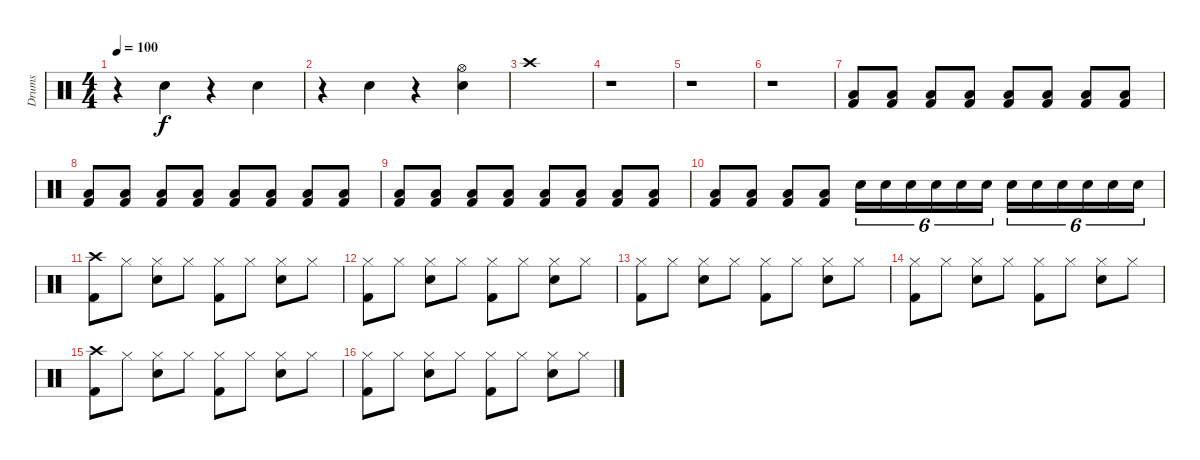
\track ("Drums" "Drums") {instrument percussion}
\staff {score}
\articulation defaults
\ts (4 4)
\tempo 100
\clef neutral
\ks c
r.4{dy f} "Electric Snare (hit)".4 r.4 "Electric Snare (hit)".4 |
r.4 "Electric Snare (hit)".4 r.4 ("Hi-Hat (open)" "Electric Snare (hit)").4 |
"Crash high (hit)".1 |
r.1 |
r.1 |
r.1 |
("Low Tom (hit)" "Kick (hit) 2").8 ("Low Tom (hit)" "Kick (hit) 2").8 ("Low Tom (hit)" "Kick (hit) 2").8 ("Low Tom (hit)" "Kick (hit) 2").8 ("Low Tom (hit)" "Kick (hit) 2").8 ("Low Tom (hit)" "Kick (hit) 2").8 ("Low Tom (hit)" "Kick (hit) 2").8 ("Low Tom (hit)" "Kick (hit) 2").8 |
("Low Tom (hit)" "Kick (hit) 2").8 ("Low Tom (hit)" "Kick (hit) 2").8 ("Low Tom (hit)" "Kick (hit) 2").8 ("Low Tom (hit)" "Kick (hit) 2").8 ("Low Tom (hit)" "Kick (hit) 2").8 ("Low Tom (hit)" "Kick (hit) 2").8 ("Low Tom (hit)" "Kick (hit) 2").8 ("Low Tom (hit)" "Kick (hit) 2").8 |
("Low Tom (hit)" "Kick (hit) 2").8 ("Low Tom (hit)" "Kick (hit) 2").8 ("Low Tom (hit)" "Kick (hit) 2").8 ("Low Tom (hit)" "Kick (hit) 2").8 ("Low Tom (hit)" "Kick (hit) 2").8 ("Low Tom (hit)" "Kick (hit) 2").8 ("Low Tom (hit)" "Kick (hit) 2").8 ("Low Tom (hit)" "Kick (hit) 2").8 |
("Low Tom (hit)" "Kick (hit) 2").8 ("Low Tom (hit)" "Kick (hit) 2").8 ("Low Tom (hit)" "Kick (hit) 2").8 ("Low Tom (hit)" "Kick (hit) 2").8 "Electric Snare (hit)".16{tu (6 4)} "Electric Snare (hit)".16{tu (6 4)} "Electric Snare (hit)".16{tu (6 4)} "Electric Snare (hit)".16{tu (6 4)} "Electric Snare (hit)".16{tu (6 4)} "Electric Snare (hit)".16{tu (6 4)} "Electric Snare (hit)".16{tu (6 4)} "Electric Snare (hit)".16{tu (6 4)} "Electric Snare (hit)".16{tu (6 4)} "Electric Snare (hit)".16{tu (6 4)} "Electric Snare (hit)".16{tu (6 4)} "Electric Snare (hit)".16{tu (6 4)} |
("Crash high (hit)" "Kick (hit) 2").8 "Hi-Hat (closed)".8 ("Hi-Hat (closed)" "Electric Snare (hit)").8 "Hi-Hat (closed)".8 ("Hi-Hat (closed)" "Kick (hit) 2").8 "Hi-Hat (closed)".8 ("Hi-Hat (closed)" "Electric Snare (hit)").8 "Hi-Hat (closed)".8 |
("Hi-Hat (closed)" "Kick (hit) 2").8 "Hi-Hat (closed)".8 ("Hi-Hat (closed)" "Electric Snare (hit)").8 "Hi-Hat (closed)".8 ("Hi-Hat (closed)" "Kick (hit) 2").8 "Hi-Hat (closed)".8 ("Hi-Hat (closed)" "Electric Snare (hit)").8 "Hi-Hat (closed)".8 |
("Hi-Hat (closed)" "Kick (hit) 2").8 "Hi-Hat (closed)".8 ("Hi-Hat (closed)" "Electric Snare (hit)").8 "Hi-Hat (closed)".8 ("Hi-Hat (closed)" "Kick (hit) 2").8 "Hi-Hat (closed)".8 ("Hi-Hat (closed)" "Electric Snare (hit)").8 "Hi-Hat (closed)".8 |
("Hi-Hat (closed)" "Kick (hit) 2").8 "Hi-Hat (closed)".8 ("Hi-Hat (closed)" "Electric Snare (hit)").8 "Hi-Hat (closed)".8 ("Hi-Hat (closed)" "Kick (hit) 2").8 "Hi-Hat (closed)".8 ("Hi-Hat (closed)" "Electric Snare (hit)").8 "Hi-Hat (closed)".8 |
("Crash high (hit)" "Kick (hit) 2").8 "Hi-Hat (closed)".8 ("Hi-Hat (closed)" "Electric Snare (hit)").8 "Hi-Hat (closed)".8 ("Hi-Hat (closed)" "Kick (hit) 2").8 "Hi-Hat (closed)".8 ("Hi-Hat (closed)" "Electric Snare (hit)").8 "Hi-Hat (closed)".8 |
("Hi-Hat (closed)" "Kick (hit) 2").8 "Hi-Hat (closed)".8 ("Hi-Hat (closed)" "Electric Snare (hit)").8 "Hi-Hat (closed)".8 ("Hi-Hat (closed)" "Kick (hit) 2").8 "Hi-Hat (closed)".8 ("Hi-Hat (closed)" "Electric Snare (hit)").8 "Hi-Hat (closed)".8
